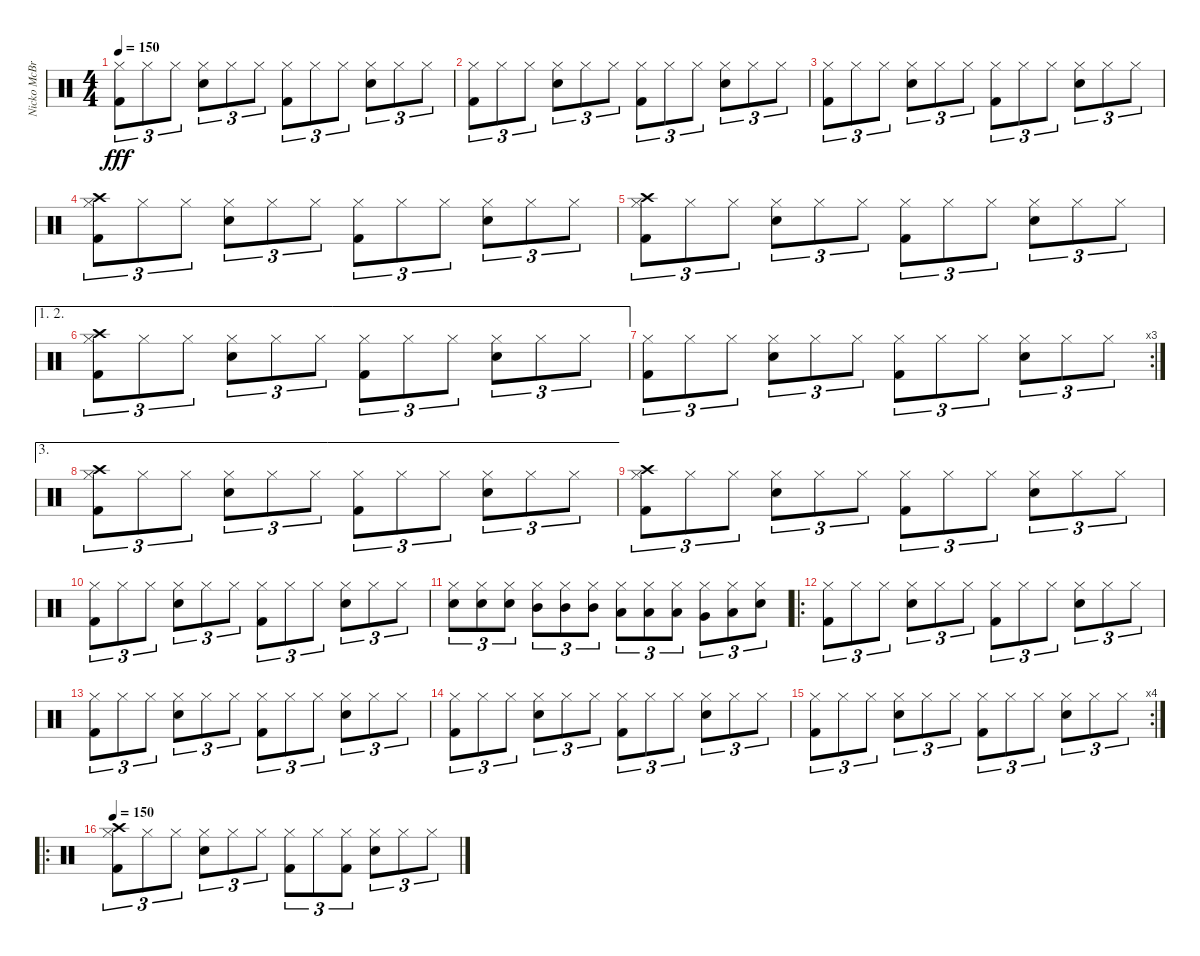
\track ("Nicko McBrain" "Nicko McBr") {instrument percussion}
\staff {score}
\articulation defaults
\ts (4 4)
\tempo 150
\clef neutral
\ks c
("Hi-Hat (closed)" "Kick (hit) 2").8{tu (3 2) dy fff} "Hi-Hat (closed)".8{tu (3 2)} "Hi-Hat (closed)".8{tu (3 2)} ("Hi-Hat (closed)" "Snare (hit) 2").8{tu (3 2)} "Hi-Hat (closed)".8{tu (3 2)} "Hi-Hat (closed)".8{tu (3 2)} ("Hi-Hat (closed)" "Kick (hit) 2").8{tu (3 2)} "Hi-Hat (closed)".8{tu (3 2)} "Hi-Hat (closed)".8{tu (3 2)} ("Hi-Hat (closed)" "Snare (hit) 2").8{tu (3 2)} "Hi-Hat (closed)".8{tu (3 2)} "Hi-Hat (closed)".8{tu (3 2)} |
("Hi-Hat (closed)" "Kick (hit) 2").8{tu (3 2)} "Hi-Hat (closed)".8{tu (3 2)} "Hi-Hat (closed)".8{tu (3 2)} ("Hi-Hat (closed)" "Snare (hit) 2").8{tu (3 2)} "Hi-Hat (closed)".8{tu (3 2)} "Hi-Hat (closed)".8{tu (3 2)} ("Hi-Hat (closed)" "Kick (hit) 2").8{tu (3 2)} "Hi-Hat (closed)".8{tu (3 2)} "Hi-Hat (closed)".8{tu (3 2)} ("Hi-Hat (closed)" "Snare (hit) 2").8{tu (3 2)} "Hi-Hat (closed)".8{tu (3 2)} "Hi-Hat (closed)".8{tu (3 2)} |
("Hi-Hat (closed)" "Kick (hit) 2").8{tu (3 2)} "Hi-Hat (closed)".8{tu (3 2)} "Hi-Hat (closed)".8{tu (3 2)} ("Hi-Hat (closed)" "Snare (hit) 2").8{tu (3 2)} "Hi-Hat (closed)".8{tu (3 2)} "Hi-Hat (closed)".8{tu (3 2)} ("Hi-Hat (closed)" "Kick (hit) 2").8{tu (3 2)} "Hi-Hat (closed)".8{tu (3 2)} "Hi-Hat (closed)".8{tu (3 2)} ("Hi-Hat (closed)" "Snare (hit) 2").8{tu (3 2)} "Hi-Hat (closed)".8{tu (3 2)} "Hi-Hat (closed)".8{tu (3 2)} |
("Hi-Hat (closed)" "Kick (hit) 2" "Crash high (hit)").8{tu (3 2)} "Hi-Hat (closed)".8{tu (3 2)} "Hi-Hat (closed)".8{tu (3 2)} ("Hi-Hat (closed)" "Snare (hit) 2").8{tu (3 2)} "Hi-Hat (closed)".8{tu (3 2)} "Hi-Hat (closed)".8{tu (3 2)} ("Hi-Hat (closed)" "Kick (hit) 2").8{tu (3 2)} "Hi-Hat (closed)".8{tu (3 2)} "Hi-Hat (closed)".8{tu (3 2)} ("Hi-Hat (closed)" "Snare (hit) 2").8{tu (3 2)} "Hi-Hat (closed)".8{tu (3 2)} "Hi-Hat (closed)".8{tu (3 2)} |
("Hi-Hat (closed)" "Kick (hit) 2" "Crash high (hit)").8{tu (3 2)} "Hi-Hat (closed)".8{tu (3 2)} "Hi-Hat (closed)".8{tu (3 2)} ("Hi-Hat (closed)" "Snare (hit) 2").8{tu (3 2)} "Hi-Hat (closed)".8{tu (3 2)} "Hi-Hat (closed)".8{tu (3 2)} ("Hi-Hat (closed)" "Kick (hit) 2").8{tu (3 2)} "Hi-Hat (closed)".8{tu (3 2)} "Hi-Hat (closed)".8{tu (3 2)} ("Hi-Hat (closed)" "Snare (hit) 2").8{tu (3 2)} "Hi-Hat (closed)".8{tu (3 2)} "Hi-Hat (closed)".8{tu (3 2)} |
\ae (1 2)
("Hi-Hat (closed)" "Kick (hit) 2" "Crash high (hit)").8{tu (3 2)} "Hi-Hat (closed)".8{tu (3 2)} "Hi-Hat (closed)".8{tu (3 2)} ("Hi-Hat (closed)" "Snare (hit) 2").8{tu (3 2)} "Hi-Hat (closed)".8{tu (3 2)} "Hi-Hat (closed)".8{tu (3 2)} ("Hi-Hat (closed)" "Kick (hit) 2").8{tu (3 2)} "Hi-Hat (closed)".8{tu (3 2)} "Hi-Hat (closed)".8{tu (3 2)} ("Hi-Hat (closed)" "Snare (hit) 2").8{tu (3 2)} "Hi-Hat (closed)".8{tu (3 2)} "Hi-Hat (closed)".8{tu (3 2)} |
\rc 3
("Hi-Hat (closed)" "Kick (hit) 2").8{tu (3 2)} "Hi-Hat (closed)".8{tu (3 2)} "Hi-Hat (closed)".8{tu (3 2)} ("Hi-Hat (closed)" "Snare (hit) 2").8{tu (3 2)} "Hi-Hat (closed)".8{tu (3 2)} "Hi-Hat (closed)".8{tu (3 2)} ("Hi-Hat (closed)" "Kick (hit) 2").8{tu (3 2)} "Hi-Hat (closed)".8{tu (3 2)} "Hi-Hat (closed)".8{tu (3 2)} ("Hi-Hat (closed)" "Snare (hit) 2").8{tu (3 2)} "Hi-Hat (closed)".8{tu (3 2)} "Hi-Hat (closed)".8{tu (3 2)} |
\ae 3
("Hi-Hat (closed)" "Kick (hit) 2" "Crash high (hit)").8{tu (3 2)} "Hi-Hat (closed)".8{tu (3 2)} "Hi-Hat (closed)".8{tu (3 2)} ("Hi-Hat (closed)" "Snare (hit) 2").8{tu (3 2)} "Hi-Hat (closed)".8{tu (3 2)} "Hi-Hat (closed)".8{tu (3 2)} ("Hi-Hat (closed)" "Kick (hit) 2").8{tu (3 2)} "Hi-Hat (closed)".8{tu (3 2)} "Hi-Hat (closed)".8{tu (3 2)} ("Hi-Hat (closed)" "Snare (hit) 2").8{tu (3 2)} "Hi-Hat (closed)".8{tu (3 2)} "Hi-Hat (closed)".8{tu (3 2)} |
("Hi-Hat (closed)" "Kick (hit) 2" "Crash high (hit)").8{tu (3 2)} "Hi-Hat (closed)".8{tu (3 2)} "Hi-Hat (closed)".8{tu (3 2)} ("Hi-Hat (closed)" "Snare (hit) 2").8{tu (3 2)} "Hi-Hat (closed)".8{tu (3 2)} "Hi-Hat (closed)".8{tu (3 2)} ("Hi-Hat (closed)" "Kick (hit) 2").8{tu (3 2)} "Hi-Hat (closed)".8{tu (3 2)} "Hi-Hat (closed)".8{tu (3 2)} ("Hi-Hat (closed)" "Snare (hit) 2").8{tu (3 2)} "Hi-Hat (closed)".8{tu (3 2)} "Hi-Hat (closed)".8{tu (3 2)} |
("Hi-Hat (closed)" "Kick (hit) 2").8{tu (3 2)} "Hi-Hat (closed)".8{tu (3 2)} "Hi-Hat (closed)".8{tu (3 2)} ("Hi-Hat (closed)" "Snare (hit) 2").8{tu (3 2)} "Hi-Hat (closed)".8{tu (3 2)} "Hi-Hat (closed)".8{tu (3 2)} ("Hi-Hat (closed)" "Kick (hit) 2").8{tu (3 2)} "Hi-Hat (closed)".8{tu (3 2)} "Hi-Hat (closed)".8{tu (3 2)} ("Hi-Hat (closed)" "Snare (hit) 2").8{tu (3 2)} "Hi-Hat (closed)".8{tu (3 2)} "Hi-Hat (closed)".8{tu (3 2)} |
("Snare (hit) 2" "Hi-Hat (closed)").8{tu (3 2)} ("Snare (hit) 2" "Hi-Hat (closed)").8{tu (3 2)} ("Snare (hit) 2" "Hi-Hat (closed)").8{tu (3 2)} ("Mid Tom (hit)" "Hi-Hat (closed)").8{tu (3 2)} ("Mid Tom (hit)" "Hi-Hat (closed)").8{tu (3 2)} ("Mid Tom (hit)" "Hi-Hat (closed)").8{tu (3 2)} ("Low Tom (hit)" "Hi-Hat (closed)").8{tu (3 2)} ("Low Tom (hit)" "Hi-Hat (closed)").8{tu (3 2)} ("Low Tom (hit)" "Hi-Hat (closed)").8{tu (3 2)} ("Very Low Tom (hit)" "Hi-Hat (closed)").8{tu (3 2)} ("Low Floor Tom (hit)" "Hi-Hat (closed)").8{tu (3 2)} ("Electric Snare (hit)" "Hi-Hat (closed)").8{tu (3 2)} |
\ro
("Hi-Hat (closed)" "Kick (hit) 2").8{tu (3 2)} "Hi-Hat (closed)".8{tu (3 2)} "Hi-Hat (closed)".8{tu (3 2)} ("Hi-Hat (closed)" "Snare (hit) 2").8{tu (3 2)} "Hi-Hat (closed)".8{tu (3 2)} "Hi-Hat (closed)".8{tu (3 2)} ("Hi-Hat (closed)" "Kick (hit) 2").8{tu (3 2)} "Hi-Hat (closed)".8{tu (3 2)} "Hi-Hat (closed)".8{tu (3 2)} ("Hi-Hat (closed)" "Snare (hit) 2").8{tu (3 2)} "Hi-Hat (closed)".8{tu (3 2)} "Hi-Hat (closed)".8{tu (3 2)} |
("Hi-Hat (closed)" "Kick (hit) 2").8{tu (3 2)} "Hi-Hat (closed)".8{tu (3 2)} "Hi-Hat (closed)".8{tu (3 2)} ("Hi-Hat (closed)" "Snare (hit) 2").8{tu (3 2)} "Hi-Hat (closed)".8{tu (3 2)} "Hi-Hat (closed)".8{tu (3 2)} ("Hi-Hat (closed)" "Kick (hit) 2").8{tu (3 2)} "Hi-Hat (closed)".8{tu (3 2)} "Hi-Hat (closed)".8{tu (3 2)} ("Hi-Hat (closed)" "Snare (hit) 2").8{tu (3 2)} "Hi-Hat (closed)".8{tu (3 2)} "Hi-Hat (closed)".8{tu (3 2)} |
("Hi-Hat (closed)" "Kick (hit) 2").8{tu (3 2)} "Hi-Hat (closed)".8{tu (3 2)} "Hi-Hat (closed)".8{tu (3 2)} ("Hi-Hat (closed)" "Snare (hit) 2").8{tu (3 2)} "Hi-Hat (closed)".8{tu (3 2)} "Hi-Hat (closed)".8{tu (3 2)} ("Hi-Hat (closed)" "Kick (hit) 2").8{tu (3 2)} "Hi-Hat (closed)".8{tu (3 2)} "Hi-Hat (closed)".8{tu (3 2)} ("Hi-Hat (closed)" "Snare (hit) 2").8{tu (3 2)} "Hi-Hat (closed)".8{tu (3 2)} "Hi-Hat (closed)".8{tu (3 2)} |
\rc 4
("Hi-Hat (closed)" "Kick (hit) 2").8{tu (3 2)} "Hi-Hat (closed)".8{tu (3 2)} "Hi-Hat (closed)".8{tu (3 2)} ("Hi-Hat (closed)" "Snare (hit) 2").8{tu (3 2)} "Hi-Hat (closed)".8{tu (3 2)} "Hi-Hat (closed)".8{tu (3 2)} ("Hi-Hat (closed)" "Kick (hit) 2").8{tu (3 2)} "Hi-Hat (closed)".8{tu (3 2)} "Hi-Hat (closed)".8{tu (3 2)} ("Hi-Hat (closed)" "Snare (hit) 2").8{tu (3 2)} "Hi-Hat (closed)".8{tu (3 2)} "Hi-Hat (closed)".8{tu (3 2)} |
\ro
\tempo 150
("Hi-Hat (closed)" "Kick (hit) 2" "Crash high (hit)").8{tu (3 2)} "Hi-Hat (closed)".8{tu (3 2)} "Hi-Hat (closed)".8{tu (3 2)} ("Hi-Hat (closed)" "Snare (hit) 2").8{tu (3 2)} "Hi-Hat (closed)".8{tu (3 2)} "Hi-Hat (closed)".8{tu (3 2)} ("Hi-Hat (closed)" "Kick (hit) 2").8{tu (3 2)} "Hi-Hat (closed)".8{tu (3 2)} ("Hi-Hat (closed)" "Kick (hit) 2").8{tu (3 2)} ("Hi-Hat (closed)" "Snare (hit) 2").8{tu (3 2)} "Hi-Hat (closed)".8{tu (3 2)} "Hi-Hat (closed)".8{tu (3 2)}
